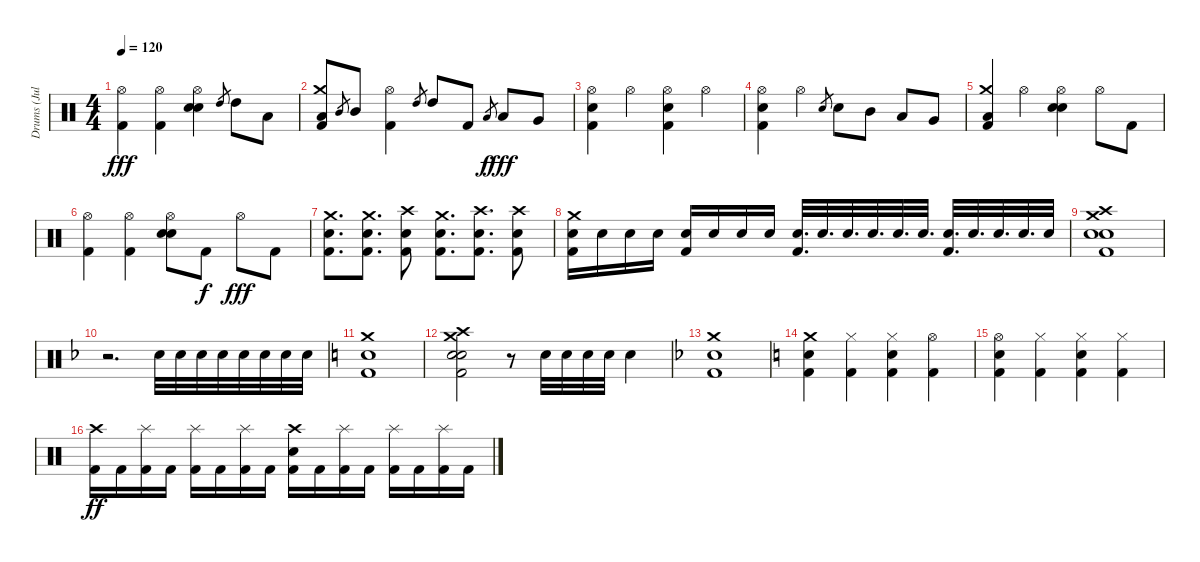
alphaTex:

\track ("Drums (Julian Del Rosario)" "Drums (Jul") {instrument percussion}
\staff {score}
\articulation defaults
\ts (4 4)
\tempo 120
\clef neutral
\ks c
("Hi-Hat (open)" "Kick (hit) 2").4{dy fff} ("Hi-Hat (open)" "Kick (hit) 2").4 ("Hi-Hat (open)" "Snare (hit) 2" "Electric Snare (hit)").4 "High Tom (hit)".8{gr} "High Tom (hit)".8 "Low Tom (hit)".8 |
("Crash medium (hit)" "Low Floor Tom (hit)" "Kick (hit) 2").8 "Mid Tom (hit)".8{gr} "Mid Tom (hit)".8 ("Hi-Hat (open)" "Kick (hit) 2").4 "High Tom (hit)".8{gr} "High Tom (hit)".8 "Kick (hit) 2".8 "Low Tom (hit)".8{gr dy f} "Low Tom (hit)".8{dy fff} "Very Low Tom (hit)".8 |
("Hi-Hat (open)" "Snare (hit) 2" "Kick (hit) 2").4 "Hi-Hat (open)".4 ("Hi-Hat (open)" "Electric Snare (hit)" "Kick (hit) 2").4 "Hi-Hat (open)".4 |
("Hi-Hat (open)" "Snare (hit) 2" "Kick (hit) 2").4 "Hi-Hat (open)".4 "Snare (hit) 2".8{gr} "Snare (hit) 2".8 "Mid Tom (hit)".8 "Low Tom (hit)".8 "Very Low Tom (hit)".8 |
("Crash medium (hit)" "Low Floor Tom (hit)" "Kick (hit) 2").4 "Hi-Hat (open)".4 ("Hi-Hat (open)" "Snare (hit) 2" "Electric Snare (hit)").4 "Hi-Hat (open)".8 "Kick (hit) 2".8 |
("Hi-Hat (open)" "Kick (hit) 2").4 ("Hi-Hat (open)" "Kick (hit) 2").4 ("Hi-Hat (open)" "Snare (hit) 2" "Electric Snare (hit)").8 "Kick (hit) 2".8{dy f} "Hi-Hat (open)".8{dy fff} "Kick (hit) 2".8 |
("Crash medium (hit)" "Snare (hit) 2" "Kick (hit) 2").8{d} ("Crash medium (hit)" "Snare (hit) 2" "Kick (hit) 2").8{d} ("Crash high (hit)" "Snare (hit) 2" "Kick (hit) 2").8 ("Crash medium (hit)" "Snare (hit) 2" "Kick (hit) 2").8{d} ("Crash high (hit)" "Snare (hit) 2" "Kick (hit) 2").8{d} ("Crash high (hit)" "Snare (hit) 2" "Kick (hit) 2").8 |
("Crash medium (hit)" "Snare (hit) 2" "Kick (hit) 2").16 "Snare (hit) 2".16 "Snare (hit) 2".16 "Snare (hit) 2".16 ("Snare (hit) 2" "Kick (hit) 2").16 "Snare (hit) 2".16 "Snare (hit) 2".16 "Snare (hit) 2".16 ("Snare (hit) 2" "Kick (hit) 2").32{d} "Snare (hit) 2".32{d} "Snare (hit) 2".32{d} "Snare (hit) 2".32{d} "Snare (hit) 2".32{d} "Snare (hit) 2".32{d} ("Snare (hit) 2" "Kick (hit) 2").32{d} "Snare (hit) 2".32{d} "Snare (hit) 2".32{d} "Snare (hit) 2".32{d} "Snare (hit) 2".32 |
("Crash medium (hit)" "Crash high (hit)" "Snare (hit) 2" "Electric Snare (hit)" "Kick (hit) 2").1 |
\ks f
r.2{d} "Snare (hit) 2".32 "Snare (hit) 2".32 "Snare (hit) 2".32 "Snare (hit) 2".32 "Snare (hit) 2".32 "Snare (hit) 2".32 "Snare (hit) 2".32 "Snare (hit) 2".32 |
\ks c
("Crash medium (hit)" "Snare (hit) 2" "Kick (hit) 2").1 |
("Crash medium (hit)" "Crash high (hit)" "Snare (hit) 2" "Electric Snare (hit)" "Kick (hit) 2").2 r.8 "Snare (hit) 2".32 "Snare (hit) 2".32 "Snare (hit) 2".32 "Snare (hit) 2".32 "Snare (hit) 2".4 |
\ks f
("Crash medium (hit)" "Snare (hit) 2" "Kick (hit) 2").1 |
\ks c
("Crash medium (hit)" "Snare (hit) 2" "Kick (hit) 2").4 ("Hi-Hat (closed)" "Kick (hit) 2").4 ("Hi-Hat (closed)" "Snare (hit) 2" "Kick (hit) 2").4 ("Hi-Hat (open)" "Kick (hit) 2").4 |
("Hi-Hat (open)" "Snare (hit) 2" "Kick (hit) 2").4 ("Hi-Hat (closed)" "Kick (hit) 2").4 ("Hi-Hat (closed)" "Snare (hit) 2" "Kick (hit) 2").4 ("Hi-Hat (closed)" "Kick (hit) 2").4 |
("Crash high (hit)" "Kick (hit) 2").16{dy ff} "Kick (hit) 2".16 ("Splash (hit)" "Kick (hit) 2").16 "Kick (hit) 2".16 ("Splash (hit)" "Kick (hit) 2").16 "Kick (hit) 2".16 ("Splash (hit)" "Kick (hit) 2").16 "Kick (hit) 2".16 ("Crash high (hit)" "Snare (hit) 2" "Kick (hit) 2").16 "Kick (hit) 2".16 ("Splash (hit)" "Kick (hit) 2").16 "Kick (hit) 2".16 ("Splash (hit)" "Kick (hit) 2").16 "Kick (hit) 2".16 ("Splash (hit)" "Kick (hit) 2").16 "Kick (hit) 2".16
